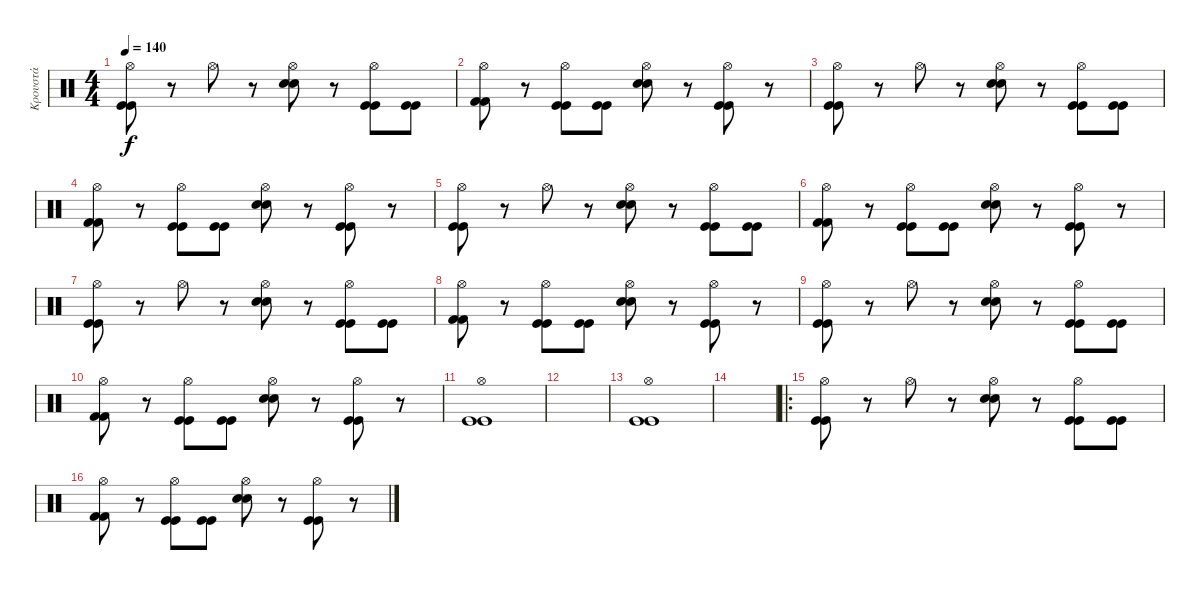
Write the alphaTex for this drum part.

\track ("Κρουστά" "Κρουστά") {instrument percussion}
\staff {score}
\articulation defaults
\ts (4 4)
\tempo 140
\clef neutral
\ks c
("Hi-Hat (open)" "Kick (hit)" "Kick (hit)").8{dy f} r.8 "Hi-Hat (open)".8 r.8 ("Hi-Hat (open)" "Electric Snare (hit)" "Electric Snare (hit)").8 r.8 ("Hi-Hat (open)" "Kick (hit)" "Kick (hit)").8 ("Kick (hit)" "Kick (hit)").8 |
("Hi-Hat (open)" "Kick (hit) 2" "Kick (hit) 2").8 r.8 ("Hi-Hat (open)" "Kick (hit)" "Kick (hit)").8 ("Kick (hit)" "Kick (hit)").8 ("Hi-Hat (open)" "Electric Snare (hit)" "Electric Snare (hit)").8 r.8 ("Hi-Hat (open)" "Kick (hit)" "Kick (hit)").8 r.8 |
("Hi-Hat (open)" "Kick (hit)" "Kick (hit)").8 r.8 "Hi-Hat (open)".8 r.8 ("Hi-Hat (open)" "Electric Snare (hit)" "Electric Snare (hit)").8 r.8 ("Hi-Hat (open)" "Kick (hit)" "Kick (hit)").8 ("Kick (hit)" "Kick (hit)").8 |
("Hi-Hat (open)" "Kick (hit) 2" "Kick (hit) 2").8 r.8 ("Hi-Hat (open)" "Kick (hit)" "Kick (hit)").8 ("Kick (hit)" "Kick (hit)").8 ("Hi-Hat (open)" "Electric Snare (hit)" "Electric Snare (hit)").8 r.8 ("Hi-Hat (open)" "Kick (hit)" "Kick (hit)").8 r.8 |
("Hi-Hat (open)" "Kick (hit)" "Kick (hit)").8 r.8 "Hi-Hat (open)".8 r.8 ("Hi-Hat (open)" "Electric Snare (hit)" "Electric Snare (hit)").8 r.8 ("Hi-Hat (open)" "Kick (hit)" "Kick (hit)").8 ("Kick (hit)" "Kick (hit)").8 |
("Hi-Hat (open)" "Kick (hit) 2" "Kick (hit) 2").8 r.8 ("Hi-Hat (open)" "Kick (hit)" "Kick (hit)").8 ("Kick (hit)" "Kick (hit)").8 ("Hi-Hat (open)" "Electric Snare (hit)" "Electric Snare (hit)").8 r.8 ("Hi-Hat (open)" "Kick (hit)" "Kick (hit)").8 r.8 |
("Hi-Hat (open)" "Kick (hit)" "Kick (hit)").8 r.8 "Hi-Hat (open)".8 r.8 ("Hi-Hat (open)" "Electric Snare (hit)" "Electric Snare (hit)").8 r.8 ("Hi-Hat (open)" "Kick (hit)" "Kick (hit)").8 ("Kick (hit)" "Kick (hit)").8 |
("Hi-Hat (open)" "Kick (hit) 2" "Kick (hit) 2").8 r.8 ("Hi-Hat (open)" "Kick (hit)" "Kick (hit)").8 ("Kick (hit)" "Kick (hit)").8 ("Hi-Hat (open)" "Electric Snare (hit)" "Electric Snare (hit)").8 r.8 ("Hi-Hat (open)" "Kick (hit)" "Kick (hit)").8 r.8 |
("Hi-Hat (open)" "Kick (hit)" "Kick (hit)").8 r.8 "Hi-Hat (open)".8 r.8 ("Hi-Hat (open)" "Electric Snare (hit)" "Electric Snare (hit)").8 r.8 ("Hi-Hat (open)" "Kick (hit)" "Kick (hit)").8 ("Kick (hit)" "Kick (hit)").8 |
("Hi-Hat (open)" "Kick (hit) 2" "Kick (hit) 2").8 r.8 ("Hi-Hat (open)" "Kick (hit)" "Kick (hit)").8 ("Kick (hit)" "Kick (hit)").8 ("Hi-Hat (open)" "Electric Snare (hit)" "Electric Snare (hit)").8 r.8 ("Hi-Hat (open)" "Kick (hit)" "Kick (hit)").8 r.8 |
("Hi-Hat (open)" "Kick (hit)" "Kick (hit)").1 |
|
("Hi-Hat (open)" "Kick (hit)" "Kick (hit)").1 |
|
\ro
("Hi-Hat (open)" "Kick (hit)" "Kick (hit)").8 r.8 "Hi-Hat (open)".8 r.8 ("Hi-Hat (open)" "Electric Snare (hit)" "Electric Snare (hit)").8 r.8 ("Hi-Hat (open)" "Kick (hit)" "Kick (hit)").8 ("Kick (hit)" "Kick (hit)").8 |
("Hi-Hat (open)" "Kick (hit) 2" "Kick (hit) 2").8 r.8 ("Hi-Hat (open)" "Kick (hit)" "Kick (hit)").8 ("Kick (hit)" "Kick (hit)").8 ("Hi-Hat (open)" "Electric Snare (hit)" "Electric Snare (hit)").8 r.8 ("Hi-Hat (open)" "Kick (hit)" "Kick (hit)").8 r.8
